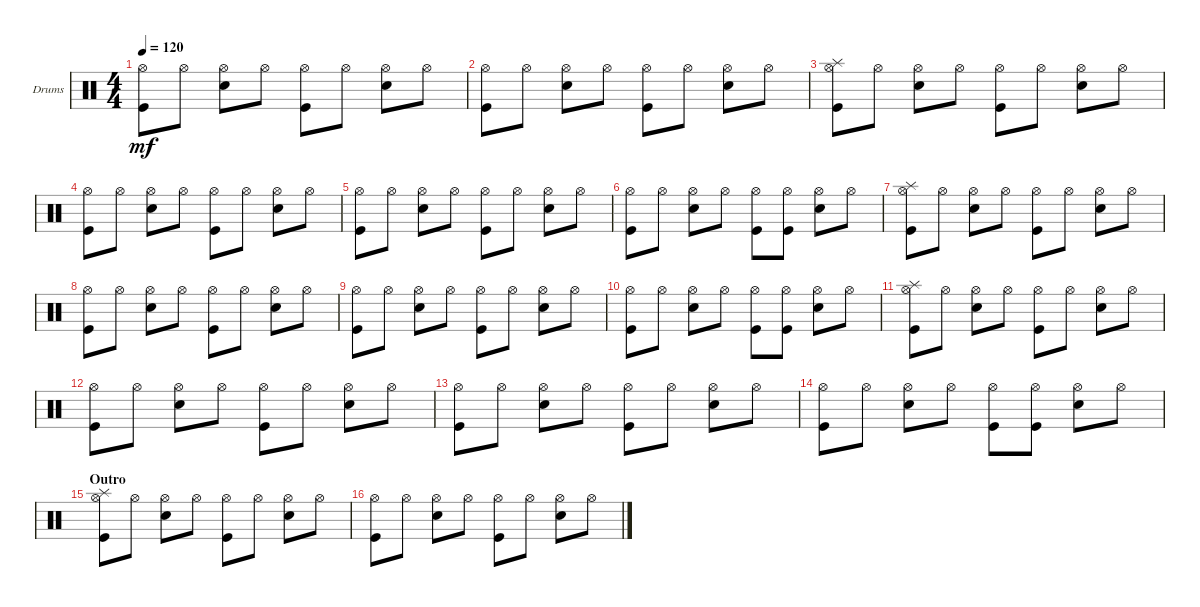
\defaultSystemsLayout 4
\bracketExtendMode groupsimilarinstruments
\firstSystemTrackNameOrientation horizontal
\otherSystemsTrackNameOrientation horizontal
\track ("Drumkit" "Drums") {instrument percussion}
\staff {score}
\articulation defaults
\ts (4 4)
\tempo 120
\clef neutral
\ks c
("Kick (hit)" "Hi-Hat (open)").8{dy mf} "Hi-Hat (open)".8 ("Hi-Hat (open)" "Snare (hit) 2").8 "Hi-Hat (open)".8 ("Hi-Hat (open)" "Kick (hit)").8 "Hi-Hat (open)".8 ("Hi-Hat (open)" "Snare (hit) 2").8 "Hi-Hat (open)".8 |
("Kick (hit)" "Hi-Hat (open)").8 "Hi-Hat (open)".8 ("Hi-Hat (open)" "Snare (hit) 2").8 "Hi-Hat (open)".8 ("Hi-Hat (open)" "Kick (hit)").8 "Hi-Hat (open)".8 ("Hi-Hat (open)" "Snare (hit) 2").8 "Hi-Hat (open)".8 |
("Kick (hit)" "Hi-Hat (open)" "Splash (hit)").8 "Hi-Hat (open)".8 ("Hi-Hat (open)" "Snare (hit) 2").8 "Hi-Hat (open)".8 ("Hi-Hat (open)" "Kick (hit)").8 "Hi-Hat (open)".8 ("Hi-Hat (open)" "Snare (hit) 2").8 "Hi-Hat (open)".8 |
("Kick (hit)" "Hi-Hat (open)").8 "Hi-Hat (open)".8 ("Hi-Hat (open)" "Snare (hit) 2").8 "Hi-Hat (open)".8 ("Hi-Hat (open)" "Kick (hit)").8 "Hi-Hat (open)".8 ("Hi-Hat (open)" "Snare (hit) 2").8 "Hi-Hat (open)".8 |
("Kick (hit)" "Hi-Hat (open)").8 "Hi-Hat (open)".8 ("Hi-Hat (open)" "Snare (hit) 2").8 "Hi-Hat (open)".8 ("Hi-Hat (open)" "Kick (hit)").8 "Hi-Hat (open)".8 ("Hi-Hat (open)" "Snare (hit) 2").8 "Hi-Hat (open)".8 |
("Kick (hit)" "Hi-Hat (open)").8 "Hi-Hat (open)".8 ("Hi-Hat (open)" "Snare (hit) 2").8 "Hi-Hat (open)".8 ("Hi-Hat (open)" "Kick (hit)").8 ("Hi-Hat (open)" "Kick (hit)").8 ("Hi-Hat (open)" "Snare (hit) 2").8 "Hi-Hat (open)".8 |
("Kick (hit)" "Hi-Hat (open)" "Splash (hit)").8 "Hi-Hat (open)".8 ("Hi-Hat (open)" "Snare (hit) 2").8 "Hi-Hat (open)".8 ("Hi-Hat (open)" "Kick (hit)").8 "Hi-Hat (open)".8 ("Hi-Hat (open)" "Snare (hit) 2").8 "Hi-Hat (open)".8 |
("Kick (hit)" "Hi-Hat (open)").8 "Hi-Hat (open)".8 ("Hi-Hat (open)" "Snare (hit) 2").8 "Hi-Hat (open)".8 ("Hi-Hat (open)" "Kick (hit)").8 "Hi-Hat (open)".8 ("Hi-Hat (open)" "Snare (hit) 2").8 "Hi-Hat (open)".8 |
("Kick (hit)" "Hi-Hat (open)").8 "Hi-Hat (open)".8 ("Hi-Hat (open)" "Snare (hit) 2").8 "Hi-Hat (open)".8 ("Hi-Hat (open)" "Kick (hit)").8 "Hi-Hat (open)".8 ("Hi-Hat (open)" "Snare (hit) 2").8 "Hi-Hat (open)".8 |
("Kick (hit)" "Hi-Hat (open)").8 "Hi-Hat (open)".8 ("Hi-Hat (open)" "Snare (hit) 2").8 "Hi-Hat (open)".8 ("Hi-Hat (open)" "Kick (hit)").8 ("Hi-Hat (open)" "Kick (hit)").8 ("Hi-Hat (open)" "Snare (hit) 2").8 "Hi-Hat (open)".8 |
("Kick (hit)" "Hi-Hat (open)" "Splash (hit)").8 "Hi-Hat (open)".8 ("Hi-Hat (open)" "Snare (hit) 2").8 "Hi-Hat (open)".8 ("Hi-Hat (open)" "Kick (hit)").8 "Hi-Hat (open)".8 ("Hi-Hat (open)" "Snare (hit) 2").8 "Hi-Hat (open)".8 |
("Kick (hit)" "Hi-Hat (open)").8 "Hi-Hat (open)".8 ("Hi-Hat (open)" "Snare (hit) 2").8 "Hi-Hat (open)".8 ("Hi-Hat (open)" "Kick (hit)").8 "Hi-Hat (open)".8 ("Hi-Hat (open)" "Snare (hit) 2").8 "Hi-Hat (open)".8 |
("Kick (hit)" "Hi-Hat (open)").8 "Hi-Hat (open)".8 ("Hi-Hat (open)" "Snare (hit) 2").8 "Hi-Hat (open)".8 ("Hi-Hat (open)" "Kick (hit)").8 "Hi-Hat (open)".8 ("Hi-Hat (open)" "Snare (hit) 2").8 "Hi-Hat (open)".8 |
("Kick (hit)" "Hi-Hat (open)").8 "Hi-Hat (open)".8 ("Hi-Hat (open)" "Snare (hit) 2").8 "Hi-Hat (open)".8 ("Hi-Hat (open)" "Kick (hit)").8 ("Hi-Hat (open)" "Kick (hit)").8 ("Hi-Hat (open)" "Snare (hit) 2").8 "Hi-Hat (open)".8 |
\section ("" "Outro")
("Kick (hit)" "Hi-Hat (open)" "Splash (hit)").8 "Hi-Hat (open)".8 ("Hi-Hat (open)" "Snare (hit) 2").8 "Hi-Hat (open)".8 ("Hi-Hat (open)" "Kick (hit)").8 "Hi-Hat (open)".8 ("Hi-Hat (open)" "Snare (hit) 2").8 "Hi-Hat (open)".8 |
("Kick (hit)" "Hi-Hat (open)").8 "Hi-Hat (open)".8 ("Hi-Hat (open)" "Snare (hit) 2").8 "Hi-Hat (open)".8 ("Hi-Hat (open)" "Kick (hit)").8 "Hi-Hat (open)".8 ("Hi-Hat (open)" "Snare (hit) 2").8 "Hi-Hat (open)".8
